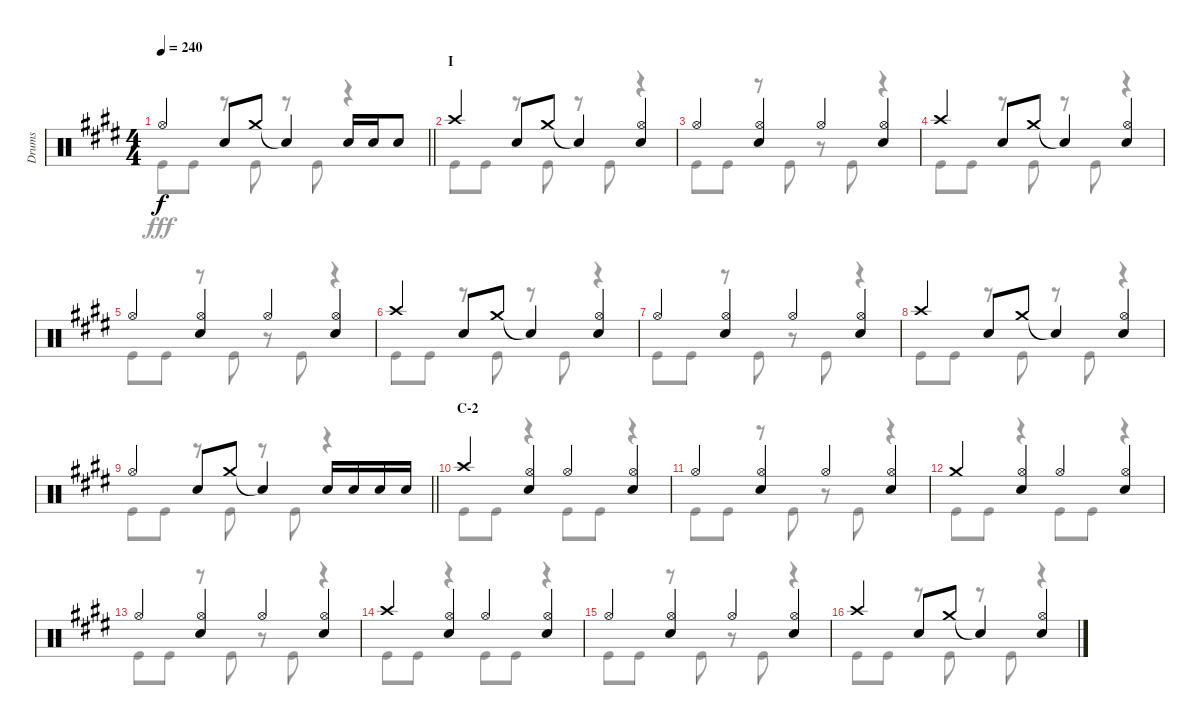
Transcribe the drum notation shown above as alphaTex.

\track ("Drums" "Drums") {instrument percussion}
\staff {score}
\articulation defaults
\voice
\ts (4 4)
\tempo 240
\clef neutral
\barLineRight lightlight
\ks e "Hi-Hat (open)".4{dy f} "Snare (hit) 2".8 "Crash medium (hit)".8 "Snare (hit)"{t}.4 "Snare (hit) 2".16 "Snare (hit) 2".16 "Snare (hit) 2".8
|
\section ("" "I")
"Crash high (hit)".4 "Snare (hit) 2".8 "Crash medium (hit)".8 "Snare (hit)"{t}.4 ("Hi-Hat (open)" "Snare (hit) 2").4 |
"Hi-Hat (open)".4 ("Hi-Hat (open)" "Snare (hit) 2").4 "Hi-Hat (open)".4 ("Hi-Hat (open)" "Snare (hit) 2").4 |
"Crash high (hit)".4 "Snare (hit) 2".8 "Crash medium (hit)".8 "Snare (hit)"{t}.4 ("Hi-Hat (open)" "Snare (hit) 2").4 |
"Hi-Hat (open)".4 ("Hi-Hat (open)" "Snare (hit) 2").4 "Hi-Hat (open)".4 ("Hi-Hat (open)" "Snare (hit) 2").4 |
"Crash high (hit)".4 "Snare (hit) 2".8 "Crash medium (hit)".8 "Snare (hit)"{t}.4 ("Hi-Hat (open)" "Snare (hit) 2").4 |
"Hi-Hat (open)".4 ("Hi-Hat (open)" "Snare (hit) 2").4 "Hi-Hat (open)".4 ("Hi-Hat (open)" "Snare (hit) 2").4 |
"Crash high (hit)".4 "Snare (hit) 2".8 "Crash medium (hit)".8 "Snare (hit)"{t}.4 ("Hi-Hat (open)" "Snare (hit) 2").4 |
\barLineRight lightlight "Hi-Hat (open)".4 "Snare (hit) 2".8 "Crash medium (hit)".8 "Snare (hit)"{t}.4 "Snare (hit) 2".16 "Snare (hit) 2".16 "Snare (hit) 2".16 "Snare (hit) 2".16
|
\section ("" "C-2")
"Crash high (hit)".4 ("Hi-Hat (open)" "Snare (hit) 2").4 "Hi-Hat (open)".4 ("Hi-Hat (open)" "Snare (hit) 2").4 |
"Hi-Hat (open)".4 ("Hi-Hat (open)" "Snare (hit) 2").4 "Hi-Hat (open)".4 ("Hi-Hat (open)" "Snare (hit) 2").4 |
"Crash medium (hit)".4 ("Hi-Hat (open)" "Snare (hit) 2").4 "Hi-Hat (open)".4 ("Hi-Hat (open)" "Snare (hit) 2").4 |
"Hi-Hat (open)".4 ("Hi-Hat (open)" "Snare (hit) 2").4 "Hi-Hat (open)".4 ("Hi-Hat (open)" "Snare (hit) 2").4 |
"Crash high (hit)".4 ("Hi-Hat (open)" "Snare (hit) 2").4 "Hi-Hat (open)".4 ("Hi-Hat (open)" "Snare (hit) 2").4 |
"Hi-Hat (open)".4 ("Hi-Hat (open)" "Snare (hit) 2").4 "Hi-Hat (open)".4 ("Hi-Hat (open)" "Snare (hit) 2").4 |
"Crash high (hit)".4 "Snare (hit) 2".8 "Crash medium (hit)".8 "Snare (hit)"{t}.4 ("Hi-Hat (open)" "Snare (hit) 2").4
\voice
\clef neutral
\ottava regular
\simile none
\barLineRight lightlight
\ks e "Kick (hit)".8{dy fff} "Kick (hit)".8
r.8 "Kick (hit)".8 r.8 "Kick (hit)".8 r.4 |
"Kick (hit)".8 "Kick (hit)".8 r.8 "Kick (hit)".8 r.8 "Kick (hit)".8 r.4 |
"Kick (hit)".8 "Kick (hit)".8 r.8 "Kick (hit)".8 r.8 "Kick (hit)".8 r.4 |
"Kick (hit)".8 "Kick (hit)".8 r.8 "Kick (hit)".8 r.8 "Kick (hit)".8 r.4 |
"Kick (hit)".8 "Kick (hit)".8 r.8 "Kick (hit)".8 r.8 "Kick (hit)".8 r.4 |
"Kick (hit)".8 "Kick (hit)".8 r.8 "Kick (hit)".8 r.8 "Kick (hit)".8 r.4 |
"Kick (hit)".8 "Kick (hit)".8 r.8 "Kick (hit)".8 r.8 "Kick (hit)".8 r.4 |
"Kick (hit)".8 "Kick (hit)".8 r.8 "Kick (hit)".8 r.8 "Kick (hit)".8 r.4 |
\barLineRight lightlight "Kick (hit)".8 "Kick (hit)".8
r.8 "Kick (hit)".8 r.8 "Kick (hit)".8 r.4 |
"Kick (hit)".8 "Kick (hit)".8 r.4 "Kick (hit)".8 "Kick (hit)".8 r.4 |
"Kick (hit)".8 "Kick (hit)".8 r.8 "Kick (hit)".8 r.8 "Kick (hit)".8 r.4 |
"Kick (hit)".8 "Kick (hit)".8 r.4 "Kick (hit)".8 "Kick (hit)".8 r.4 |
"Kick (hit)".8 "Kick (hit)".8 r.8 "Kick (hit)".8 r.8 "Kick (hit)".8 r.4 |
"Kick (hit)".8 "Kick (hit)".8 r.4 "Kick (hit)".8 "Kick (hit)".8 r.4 |
"Kick (hit)".8 "Kick (hit)".8 r.8 "Kick (hit)".8 r.8 "Kick (hit)".8 r.4 |
"Kick (hit)".8 "Kick (hit)".8 r.8 "Kick (hit)".8 r.8 "Kick (hit)".8 r.4
